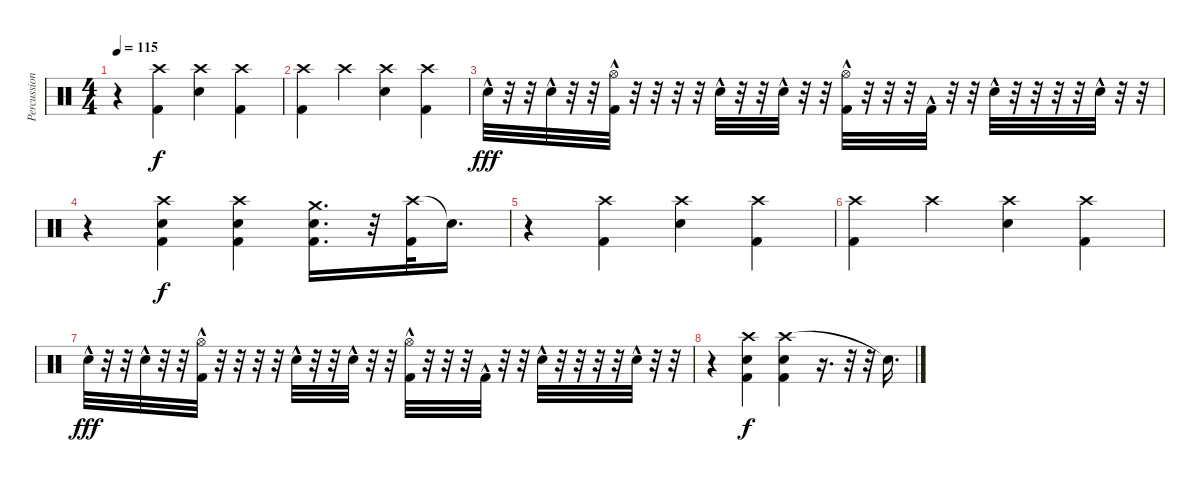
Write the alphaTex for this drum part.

\track ("Percussion" "Percussion") {instrument percussion}
\staff {score}
\articulation defaults
\ts (4 4)
\tempo 115
\clef neutral
\ks c
r.4{dy f} ("Crash high (hit)" "Kick (hit) 2").4 ("Crash high (hit)" "Electric Snare (hit)").4 ("Crash high (hit)" "Kick (hit) 2").4 |
("Crash high (hit)" "Kick (hit) 2").4 "Crash high (hit)".4 ("Crash high (hit)" "Electric Snare (hit)").4 ("Crash high (hit)" "Kick (hit) 2").4 |
"Electric Snare (hit)"{hac}.32{dy fff} r.32 r.32 "Electric Snare (hit)"{hac}.32 r.32 r.32 ("Hi-Hat (open)"{hac} "Kick (hit) 2"{hac}).32 r.32 r.32 r.32 r.32 "Electric Snare (hit)"{hac}.32 r.32 r.32 "Electric Snare (hit)"{hac}.32 r.32 r.32 ("Hi-Hat (open)"{hac} "Kick (hit) 2"{hac}).32 r.32 r.32 r.32 "Kick (hit) 2"{hac}.32 r.32 r.32 "Electric Snare (hit)"{hac}.32 r.32 r.32 r.32 r.32 "Electric Snare (hit)"{hac}.32 r.32 r.32 |
r.4 ("Crash high (hit)" "Electric Snare (hit)" "Kick (hit) 2").4{dy f} ("Crash high (hit)" "Electric Snare (hit)" "Kick (hit) 2").4 ("Crash medium (hit)" "Electric Snare (hit)" "Kick (hit) 2").16{d} r.32 ("Crash high (hit)" "Kick (hit) 2").32 "Snare (hit)"{t}.16{d} |
r.4 ("Crash high (hit)" "Kick (hit) 2").4 ("Crash high (hit)" "Electric Snare (hit)").4 ("Crash high (hit)" "Kick (hit) 2").4 |
("Crash high (hit)" "Kick (hit) 2").4 "Crash high (hit)".4 ("Crash high (hit)" "Electric Snare (hit)").4 ("Crash high (hit)" "Kick (hit) 2").4 |
"Electric Snare (hit)"{hac}.32{dy fff} r.32 r.32 "Electric Snare (hit)"{hac}.32 r.32 r.32 ("Hi-Hat (open)"{hac} "Kick (hit) 2"{hac}).32 r.32 r.32 r.32 r.32 "Electric Snare (hit)"{hac}.32 r.32 r.32 "Electric Snare (hit)"{hac}.32 r.32 r.32 ("Hi-Hat (open)"{hac} "Kick (hit) 2"{hac}).32 r.32 r.32 r.32 "Kick (hit) 2"{hac}.32 r.32 r.32 "Electric Snare (hit)"{hac}.32 r.32 r.32 r.32 r.32 "Electric Snare (hit)"{hac}.32 r.32 r.32 |
r.4 ("Crash high (hit)" "Electric Snare (hit)" "Kick (hit) 2").4{dy f} ("Crash high (hit)" "Electric Snare (hit)" "Kick (hit) 2").4 r.16{d} r.32 r.32 "Snare (hit)"{t}.16{d}
